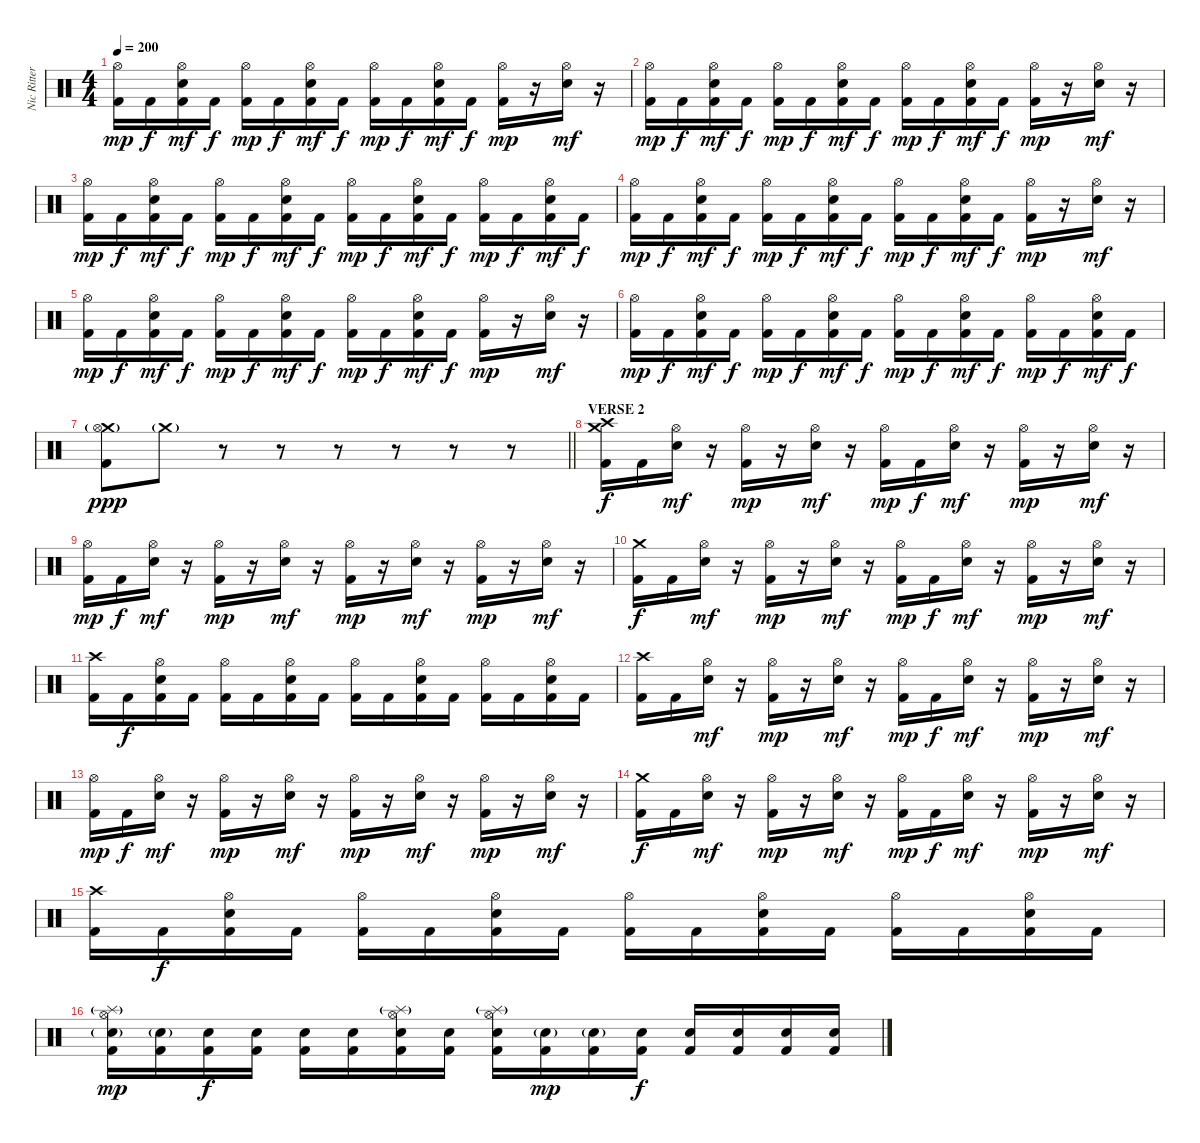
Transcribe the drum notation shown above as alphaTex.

\track ("Nic Ritter" "Nic Ritter") {instrument percussion}
\staff {score}
\articulation defaults
\ts (4 4)
\tempo 200
\clef neutral
\ks c
("Hi-Hat (open)" "Kick (hit) 2").16{dy mp} "Kick (hit) 2".16{dy f} ("Hi-Hat (open)" "Electric Snare (hit)" "Kick (hit) 2").16{dy mf} "Kick (hit) 2".16{dy f} ("Hi-Hat (open)" "Kick (hit) 2").16{dy mp} "Kick (hit) 2".16{dy f} ("Hi-Hat (open)" "Electric Snare (hit)" "Kick (hit) 2").16{dy mf} "Kick (hit) 2".16{dy f} ("Hi-Hat (open)" "Kick (hit) 2").16{dy mp} "Kick (hit) 2".16{dy f} ("Hi-Hat (open)" "Electric Snare (hit)" "Kick (hit) 2").16{dy mf} "Kick (hit) 2".16{dy f} ("Hi-Hat (open)" "Kick (hit) 2").16{dy mp} r.16 ("Hi-Hat (open)" "Electric Snare (hit)").16{dy mf} r.16 |
("Hi-Hat (open)" "Kick (hit) 2").16{dy mp} "Kick (hit) 2".16{dy f} ("Hi-Hat (open)" "Electric Snare (hit)" "Kick (hit) 2").16{dy mf} "Kick (hit) 2".16{dy f} ("Hi-Hat (open)" "Kick (hit) 2").16{dy mp} "Kick (hit) 2".16{dy f} ("Hi-Hat (open)" "Electric Snare (hit)" "Kick (hit) 2").16{dy mf} "Kick (hit) 2".16{dy f} ("Hi-Hat (open)" "Kick (hit) 2").16{dy mp} "Kick (hit) 2".16{dy f} ("Hi-Hat (open)" "Electric Snare (hit)" "Kick (hit) 2").16{dy mf} "Kick (hit) 2".16{dy f} ("Hi-Hat (open)" "Kick (hit) 2").16{dy mp} r.16 ("Hi-Hat (open)" "Electric Snare (hit)").16{dy mf} r.16 |
("Hi-Hat (open)" "Kick (hit) 2").16{dy mp} "Kick (hit) 2".16{dy f} ("Hi-Hat (open)" "Electric Snare (hit)" "Kick (hit) 2").16{dy mf} "Kick (hit) 2".16{dy f} ("Hi-Hat (open)" "Kick (hit) 2").16{dy mp} "Kick (hit) 2".16{dy f} ("Hi-Hat (open)" "Electric Snare (hit)" "Kick (hit) 2").16{dy mf} "Kick (hit) 2".16{dy f} ("Hi-Hat (open)" "Kick (hit) 2").16{dy mp} "Kick (hit) 2".16{dy f} ("Hi-Hat (open)" "Electric Snare (hit)" "Kick (hit) 2").16{dy mf} "Kick (hit) 2".16{dy f} ("Hi-Hat (open)" "Kick (hit) 2").16{dy mp} "Kick (hit) 2".16{dy f} ("Hi-Hat (open)" "Electric Snare (hit)" "Kick (hit) 2").16{dy mf} "Kick (hit) 2".16{dy f} |
("Hi-Hat (open)" "Kick (hit) 2").16{dy mp} "Kick (hit) 2".16{dy f} ("Hi-Hat (open)" "Electric Snare (hit)" "Kick (hit) 2").16{dy mf} "Kick (hit) 2".16{dy f} ("Hi-Hat (open)" "Kick (hit) 2").16{dy mp} "Kick (hit) 2".16{dy f} ("Hi-Hat (open)" "Electric Snare (hit)" "Kick (hit) 2").16{dy mf} "Kick (hit) 2".16{dy f} ("Hi-Hat (open)" "Kick (hit) 2").16{dy mp} "Kick (hit) 2".16{dy f} ("Hi-Hat (open)" "Electric Snare (hit)" "Kick (hit) 2").16{dy mf} "Kick (hit) 2".16{dy f} ("Hi-Hat (open)" "Kick (hit) 2").16{dy mp} r.16 ("Hi-Hat (open)" "Electric Snare (hit)").16{dy mf} r.16 |
("Hi-Hat (open)" "Kick (hit) 2").16{dy mp} "Kick (hit) 2".16{dy f} ("Hi-Hat (open)" "Electric Snare (hit)" "Kick (hit) 2").16{dy mf} "Kick (hit) 2".16{dy f} ("Hi-Hat (open)" "Kick (hit) 2").16{dy mp} "Kick (hit) 2".16{dy f} ("Hi-Hat (open)" "Electric Snare (hit)" "Kick (hit) 2").16{dy mf} "Kick (hit) 2".16{dy f} ("Hi-Hat (open)" "Kick (hit) 2").16{dy mp} "Kick (hit) 2".16{dy f} ("Hi-Hat (open)" "Electric Snare (hit)" "Kick (hit) 2").16{dy mf} "Kick (hit) 2".16{dy f} ("Hi-Hat (open)" "Kick (hit) 2").16{dy mp} r.16 ("Hi-Hat (open)" "Electric Snare (hit)").16{dy mf} r.16 |
("Hi-Hat (open)" "Kick (hit) 2").16{dy mp} "Kick (hit) 2".16{dy f} ("Hi-Hat (open)" "Electric Snare (hit)" "Kick (hit) 2").16{dy mf} "Kick (hit) 2".16{dy f} ("Hi-Hat (open)" "Kick (hit) 2").16{dy mp} "Kick (hit) 2".16{dy f} ("Hi-Hat (open)" "Electric Snare (hit)" "Kick (hit) 2").16{dy mf} "Kick (hit) 2".16{dy f} ("Hi-Hat (open)" "Kick (hit) 2").16{dy mp} "Kick (hit) 2".16{dy f} ("Hi-Hat (open)" "Electric Snare (hit)" "Kick (hit) 2").16{dy mf} "Kick (hit) 2".16{dy f} ("Hi-Hat (open)" "Kick (hit) 2").16{dy mp} "Kick (hit) 2".16{dy f} ("Hi-Hat (open)" "Electric Snare (hit)" "Kick (hit) 2").16{dy mf} "Kick (hit) 2".16{dy f} |
\barLineRight lightlight
("Crash medium (hit)" "Hi-Hat (open)"{g} "Kick (hit) 2").8{dy ppp} "Crash medium (hit)"{g}.8 r.8 r.8 r.8 r.8 r.8 r.8 |
\section ("" "VERSE 2")
("Crash medium (hit)" "Crash high (hit)" "Kick (hit) 2").16{dy f} "Kick (hit) 2".16 ("Hi-Hat (open)" "Electric Snare (hit)").16{dy mf} r.16 ("Hi-Hat (open)" "Kick (hit) 2").16{dy mp} r.16 ("Hi-Hat (open)" "Electric Snare (hit)").16{dy mf} r.16 ("Hi-Hat (open)" "Kick (hit) 2").16{dy mp} "Kick (hit) 2".16{dy f} ("Hi-Hat (open)" "Electric Snare (hit)").16{dy mf} r.16 ("Hi-Hat (open)" "Kick (hit) 2").16{dy mp} r.16 ("Hi-Hat (open)" "Electric Snare (hit)").16{dy mf} r.16 |
("Hi-Hat (open)" "Kick (hit) 2").16{dy mp} "Kick (hit) 2".16{dy f} ("Hi-Hat (open)" "Electric Snare (hit)").16{dy mf} r.16 ("Hi-Hat (open)" "Kick (hit) 2").16{dy mp} r.16 ("Hi-Hat (open)" "Electric Snare (hit)").16{dy mf} r.16 ("Hi-Hat (open)" "Kick (hit) 2").16{dy mp} r.16 ("Hi-Hat (open)" "Electric Snare (hit)").16{dy mf} r.16 ("Hi-Hat (open)" "Kick (hit) 2").16{dy mp} r.16 ("Hi-Hat (open)" "Electric Snare (hit)").16{dy mf} r.16 |
("Crash medium (hit)" "Kick (hit) 2").16{dy f} "Kick (hit) 2".16 ("Hi-Hat (open)" "Electric Snare (hit)").16{dy mf} r.16 ("Hi-Hat (open)" "Kick (hit) 2").16{dy mp} r.16 ("Hi-Hat (open)" "Electric Snare (hit)").16{dy mf} r.16 ("Hi-Hat (open)" "Kick (hit) 2").16{dy mp} "Kick (hit) 2".16{dy f} ("Hi-Hat (open)" "Electric Snare (hit)").16{dy mf} r.16 ("Hi-Hat (open)" "Kick (hit) 2").16{dy mp} r.16 ("Hi-Hat (open)" "Electric Snare (hit)").16{dy mf} r.16 |
("Crash high (hit)" "Kick (hit) 2").16 "Kick (hit) 2".16{dy f} ("Hi-Hat (open)" "Electric Snare (hit)" "Kick (hit) 2").16 "Kick (hit) 2".16 ("Hi-Hat (open)" "Kick (hit) 2").16 "Kick (hit) 2".16 ("Hi-Hat (open)" "Electric Snare (hit)" "Kick (hit) 2").16 "Kick (hit) 2".16 ("Hi-Hat (open)" "Kick (hit) 2").16 "Kick (hit) 2".16 ("Hi-Hat (open)" "Electric Snare (hit)" "Kick (hit) 2").16 "Kick (hit) 2".16 ("Hi-Hat (open)" "Kick (hit) 2").16 "Kick (hit) 2".16 ("Hi-Hat (open)" "Electric Snare (hit)" "Kick (hit) 2").16 "Kick (hit) 2".16 |
("Crash high (hit)" "Kick (hit) 2").16 "Kick (hit) 2".16 ("Hi-Hat (open)" "Electric Snare (hit)").16{dy mf} r.16 ("Hi-Hat (open)" "Kick (hit) 2").16{dy mp} r.16 ("Hi-Hat (open)" "Electric Snare (hit)").16{dy mf} r.16 ("Hi-Hat (open)" "Kick (hit) 2").16{dy mp} "Kick (hit) 2".16{dy f} ("Hi-Hat (open)" "Electric Snare (hit)").16{dy mf} r.16 ("Hi-Hat (open)" "Kick (hit) 2").16{dy mp} r.16 ("Hi-Hat (open)" "Electric Snare (hit)").16{dy mf} r.16 |
("Hi-Hat (open)" "Kick (hit) 2").16{dy mp} "Kick (hit) 2".16{dy f} ("Hi-Hat (open)" "Electric Snare (hit)").16{dy mf} r.16 ("Hi-Hat (open)" "Kick (hit) 2").16{dy mp} r.16 ("Hi-Hat (open)" "Electric Snare (hit)").16{dy mf} r.16 ("Hi-Hat (open)" "Kick (hit) 2").16{dy mp} r.16 ("Hi-Hat (open)" "Electric Snare (hit)").16{dy mf} r.16 ("Hi-Hat (open)" "Kick (hit) 2").16{dy mp} r.16 ("Hi-Hat (open)" "Electric Snare (hit)").16{dy mf} r.16 |
("Crash medium (hit)" "Kick (hit) 2").16{dy f} "Kick (hit) 2".16 ("Hi-Hat (open)" "Electric Snare (hit)").16{dy mf} r.16 ("Hi-Hat (open)" "Kick (hit) 2").16{dy mp} r.16 ("Hi-Hat (open)" "Electric Snare (hit)").16{dy mf} r.16 ("Hi-Hat (open)" "Kick (hit) 2").16{dy mp} "Kick (hit) 2".16{dy f} ("Hi-Hat (open)" "Electric Snare (hit)").16{dy mf} r.16 ("Hi-Hat (open)" "Kick (hit) 2").16{dy mp} r.16 ("Hi-Hat (open)" "Electric Snare (hit)").16{dy mf} r.16 |
("Crash high (hit)" "Kick (hit) 2").16 "Kick (hit) 2".16{dy f} ("Hi-Hat (open)" "Electric Snare (hit)" "Kick (hit) 2").16 "Kick (hit) 2".16 ("Hi-Hat (open)" "Kick (hit) 2").16 "Kick (hit) 2".16 ("Hi-Hat (open)" "Electric Snare (hit)" "Kick (hit) 2").16 "Kick (hit) 2".16 ("Hi-Hat (open)" "Kick (hit) 2").16 "Kick (hit) 2".16 ("Hi-Hat (open)" "Electric Snare (hit)" "Kick (hit) 2").16 "Kick (hit) 2".16 ("Hi-Hat (open)" "Kick (hit) 2").16 "Kick (hit) 2".16 ("Hi-Hat (open)" "Electric Snare (hit)" "Kick (hit) 2").16 "Kick (hit) 2".16 |
("Splash (hit)"{g} "Hi-Hat (open)" "Electric Snare (hit)"{g} "Kick (hit) 2").16{dy mp} ("Electric Snare (hit)"{g} "Kick (hit) 2").16 ("Electric Snare (hit)" "Kick (hit) 2").16{dy f} ("Electric Snare (hit)" "Kick (hit) 2").16 ("Electric Snare (hit)" "Kick (hit) 2").16 ("Electric Snare (hit)" "Kick (hit) 2").16 ("Splash (hit)"{g} "Hi-Hat (open)" "Electric Snare (hit)" "Kick (hit) 2").16 ("Electric Snare (hit)" "Kick (hit) 2").16 ("Splash (hit)"{g} "Hi-Hat (open)" "Electric Snare (hit)" "Kick (hit) 2").16 ("Electric Snare (hit)"{g} "Kick (hit) 2").16{dy mp} ("Electric Snare (hit)"{g} "Kick (hit) 2").16 ("Electric Snare (hit)" "Kick (hit) 2").16{dy f} ("Electric Snare (hit)" "Kick (hit) 2").16 ("Electric Snare (hit)" "Kick (hit) 2").16 ("Electric Snare (hit)" "Kick (hit) 2").16 ("Electric Snare (hit)" "Kick (hit) 2").16
